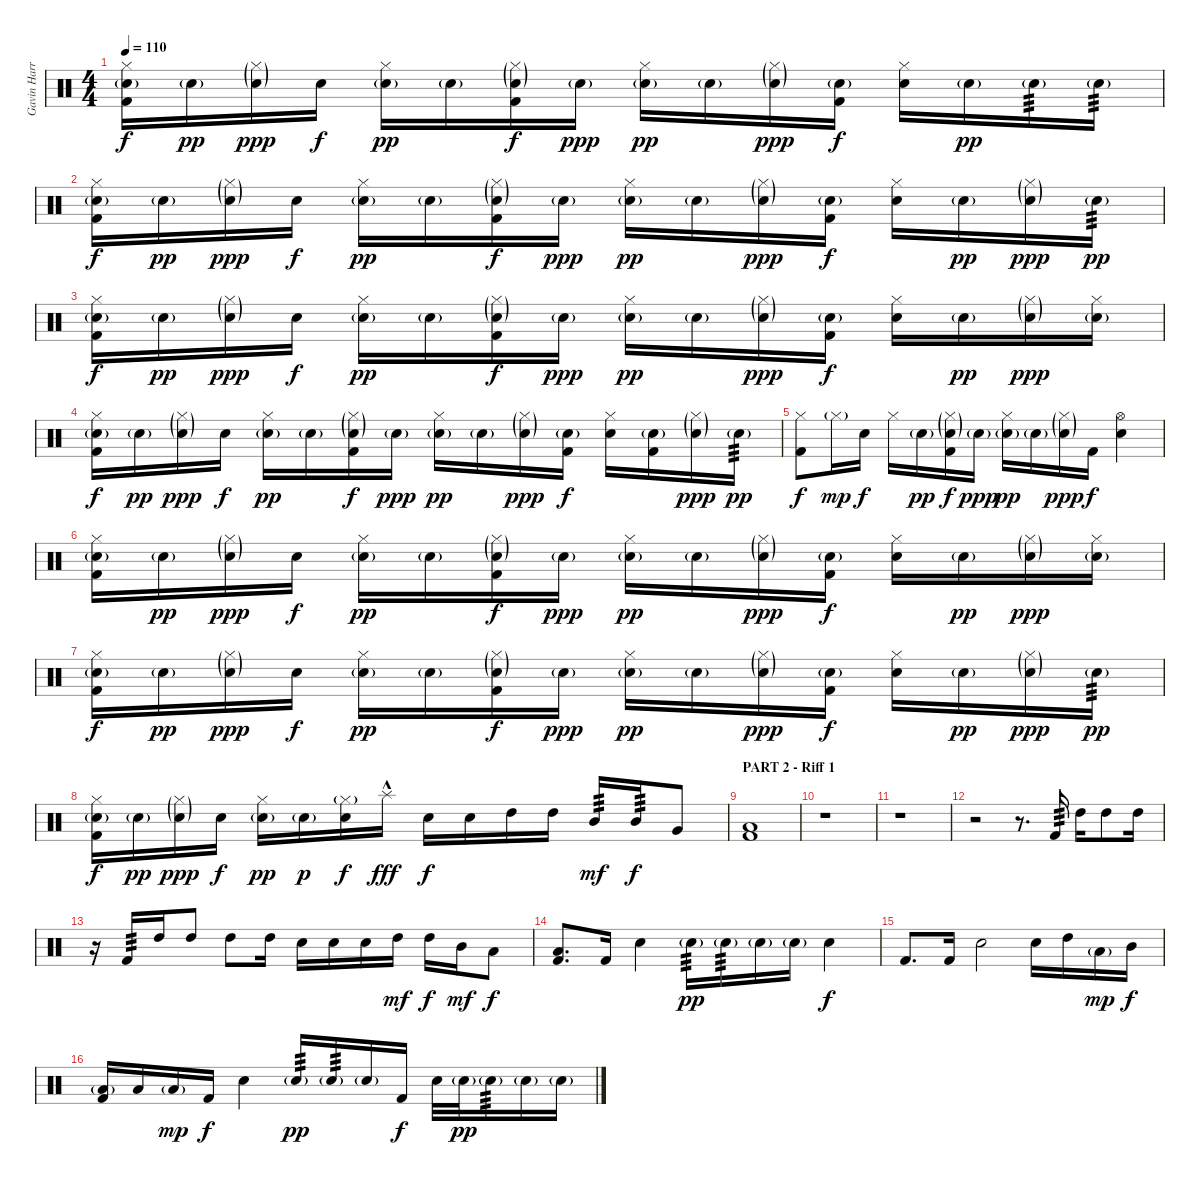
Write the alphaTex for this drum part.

\track ("Gavin Harrison - Drums" "Gavin Harr") {instrument percussion}
\staff {score}
\articulation defaults
\ts (4 4)
\tempo 110
\clef neutral
\ks c
("Hi-Hat (closed)" "Electric Snare (hit)"{g} "Kick (hit) 2").16{dy f} "Electric Snare (hit)"{g}.16{dy pp} ("Hi-Hat (closed)"{g} "Electric Snare (hit)"{g}).16{dy ppp} "Electric Snare (hit)".16{dy f} ("Hi-Hat (closed)" "Electric Snare (hit)"{g}).16{dy pp} "Electric Snare (hit)"{g}.16 ("Hi-Hat (closed)"{g} "Electric Snare (hit)"{g} "Kick (hit) 2").16{dy f} "Electric Snare (hit)"{g}.16{dy ppp} ("Hi-Hat (closed)" "Electric Snare (hit)"{g}).16{dy pp} "Electric Snare (hit)"{g}.16 ("Hi-Hat (closed)"{g} "Electric Snare (hit)"{g}).16{dy ppp} ("Electric Snare (hit)"{g} "Kick (hit) 2").16{dy f} ("Hi-Hat (closed)" "Electric Snare (hit)").16 "Electric Snare (hit)"{g}.16{dy pp} "Electric Snare (hit)"{g}.16{tp 3} "Electric Snare (hit)"{g}.16{tp 3} |
("Hi-Hat (closed)" "Electric Snare (hit)"{g} "Kick (hit) 2").16{dy f} "Electric Snare (hit)"{g}.16{dy pp} ("Hi-Hat (closed)"{g} "Electric Snare (hit)"{g}).16{dy ppp} "Electric Snare (hit)".16{dy f} ("Hi-Hat (closed)" "Electric Snare (hit)"{g}).16{dy pp} "Electric Snare (hit)"{g}.16 ("Hi-Hat (closed)"{g} "Electric Snare (hit)"{g} "Kick (hit) 2").16{dy f} "Electric Snare (hit)"{g}.16{dy ppp} ("Hi-Hat (closed)" "Electric Snare (hit)"{g}).16{dy pp} "Electric Snare (hit)"{g}.16 ("Hi-Hat (closed)"{g} "Electric Snare (hit)"{g}).16{dy ppp} ("Electric Snare (hit)"{g} "Kick (hit) 2").16{dy f} ("Hi-Hat (closed)" "Electric Snare (hit)").16 "Electric Snare (hit)"{g}.16{dy pp} ("Hi-Hat (closed)"{g} "Electric Snare (hit)"{g}).16{dy ppp} "Electric Snare (hit)"{g}.16{tp 3 dy pp} |
("Hi-Hat (closed)" "Electric Snare (hit)"{g} "Kick (hit) 2").16{dy f} "Electric Snare (hit)"{g}.16{dy pp} ("Hi-Hat (closed)"{g} "Electric Snare (hit)"{g}).16{dy ppp} "Electric Snare (hit)".16{dy f} ("Hi-Hat (closed)" "Electric Snare (hit)"{g}).16{dy pp} "Electric Snare (hit)"{g}.16 ("Hi-Hat (closed)"{g} "Electric Snare (hit)"{g} "Kick (hit) 2").16{dy f} "Electric Snare (hit)"{g}.16{dy ppp} ("Hi-Hat (closed)" "Electric Snare (hit)"{g}).16{dy pp} "Electric Snare (hit)"{g}.16 ("Hi-Hat (closed)"{g} "Electric Snare (hit)"{g}).16{dy ppp} ("Electric Snare (hit)"{g} "Kick (hit) 2").16{dy f} ("Hi-Hat (closed)" "Electric Snare (hit)").16 "Electric Snare (hit)"{g}.16{dy pp} ("Hi-Hat (closed)"{g} "Electric Snare (hit)"{g}).16{dy ppp} ("Hi-Hat (closed)" "Electric Snare (hit)"{g}).16 |
("Hi-Hat (closed)" "Electric Snare (hit)"{g} "Kick (hit) 2").16{dy f} "Electric Snare (hit)"{g}.16{dy pp} ("Hi-Hat (closed)"{g} "Electric Snare (hit)"{g}).16{dy ppp} "Electric Snare (hit)".16{dy f} ("Hi-Hat (closed)" "Electric Snare (hit)"{g}).16{dy pp} "Electric Snare (hit)"{g}.16 ("Hi-Hat (closed)"{g} "Electric Snare (hit)"{g} "Kick (hit) 2").16{dy f} "Electric Snare (hit)"{g}.16{dy ppp} ("Hi-Hat (closed)" "Electric Snare (hit)"{g}).16{dy pp} "Electric Snare (hit)"{g}.16 ("Hi-Hat (closed)"{g} "Electric Snare (hit)"{g}).16{dy ppp} ("Electric Snare (hit)"{g} "Kick (hit) 2").16{dy f} ("Hi-Hat (closed)" "Electric Snare (hit)").16 ("Electric Snare (hit)"{g} "Kick (hit) 2").16 ("Hi-Hat (closed)"{g} "Electric Snare (hit)"{g}).16{dy ppp} "Electric Snare (hit)"{g}.16{tp 3 dy pp} |
("Hi-Hat (closed)" "Kick (hit) 2").8{dy f} "Hi-Hat (closed)"{g}.16{dy mp} "Electric Snare (hit)".16{dy f} "Hi-Hat (closed)".16 "Electric Snare (hit)"{g}.16{dy pp} ("Hi-Hat (closed)"{g} "Electric Snare (hit)"{g} "Kick (hit) 2").16{dy f} "Electric Snare (hit)"{g}.16{dy ppp} ("Hi-Hat (closed)" "Electric Snare (hit)"{g}).16{dy pp} "Electric Snare (hit)"{g}.16 ("Hi-Hat (closed)"{g} "Electric Snare (hit)"{g}).16{dy ppp} "Kick (hit) 2".16{dy f} ("Hi-Hat (open)" "Electric Snare (hit)").4 |
("Hi-Hat (closed)" "Electric Snare (hit)"{g} "Kick (hit) 2").16 "Electric Snare (hit)"{g}.16{dy pp} ("Hi-Hat (closed)"{g} "Electric Snare (hit)"{g}).16{dy ppp} "Electric Snare (hit)".16{dy f} ("Hi-Hat (closed)" "Electric Snare (hit)"{g}).16{dy pp} "Electric Snare (hit)"{g}.16 ("Hi-Hat (closed)"{g} "Electric Snare (hit)"{g} "Kick (hit) 2").16{dy f} "Electric Snare (hit)"{g}.16{dy ppp} ("Hi-Hat (closed)" "Electric Snare (hit)"{g}).16{dy pp} "Electric Snare (hit)"{g}.16 ("Hi-Hat (closed)"{g} "Electric Snare (hit)"{g}).16{dy ppp} ("Electric Snare (hit)"{g} "Kick (hit) 2").16{dy f} ("Hi-Hat (closed)" "Electric Snare (hit)").16 "Electric Snare (hit)"{g}.16{dy pp} ("Hi-Hat (closed)"{g} "Electric Snare (hit)"{g}).16{dy ppp} ("Hi-Hat (closed)" "Electric Snare (hit)"{g}).16 |
("Hi-Hat (closed)" "Electric Snare (hit)"{g} "Kick (hit) 2").16{dy f} "Electric Snare (hit)"{g}.16{dy pp} ("Hi-Hat (closed)"{g} "Electric Snare (hit)"{g}).16{dy ppp} "Electric Snare (hit)".16{dy f} ("Hi-Hat (closed)" "Electric Snare (hit)"{g}).16{dy pp} "Electric Snare (hit)"{g}.16 ("Hi-Hat (closed)"{g} "Electric Snare (hit)"{g} "Kick (hit) 2").16{dy f} "Electric Snare (hit)"{g}.16{dy ppp} ("Hi-Hat (closed)" "Electric Snare (hit)"{g}).16{dy pp} "Electric Snare (hit)"{g}.16 ("Hi-Hat (closed)"{g} "Electric Snare (hit)"{g}).16{dy ppp} ("Electric Snare (hit)"{g} "Kick (hit) 2").16{dy f} ("Hi-Hat (closed)" "Electric Snare (hit)").16 "Electric Snare (hit)"{g}.16{dy pp} ("Hi-Hat (closed)"{g} "Electric Snare (hit)"{g}).16{dy ppp} "Electric Snare (hit)"{g}.16{tp 3 dy pp} |
("Hi-Hat (closed)" "Electric Snare (hit)"{g} "Kick (hit) 2").16{dy f} "Electric Snare (hit)"{g}.16{dy pp} ("Hi-Hat (closed)"{g} "Electric Snare (hit)"{g}).16{dy ppp} "Electric Snare (hit)".16{dy f} ("Hi-Hat (closed)" "Electric Snare (hit)"{g}).16{dy pp} "Electric Snare (hit)"{g}.16{dy p} ("Hi-Hat (closed)"{g} "Electric Snare (hit)").16{dy f} "Splash (hit)"{hac}.16{dy fff} "Electric Snare (hit)".16{dy f} "Electric Snare (hit)".16 "High Tom (hit)".16 "High Tom (hit)".16 "Mid Tom (hit)".16{tp 3 dy mf} "Mid Tom (hit)".16{tp 3 dy f} "Very Low Tom (hit)".8 |
\section ("" "PART 2 - Riff 1")
("Low Floor Tom (hit)" "Kick (hit) 2").1 |
r.1 |
r.1 |
r.2 r.8{d} "Kick (hit) 2".16{tp 3} "High Tom (hit)".16 "High Tom (hit)".8 "High Tom (hit)".16 |
r.16 "Kick (hit) 2".16{tp 3} "High Tom (hit)".16 "High Tom (hit)".8 "High Tom (hit)".8 "High Tom (hit)".16 "Electric Snare (hit)".16 "Electric Snare (hit)".16 "Electric Snare (hit)".16 "High Tom (hit)".16{dy mf} "High Tom (hit)".16{dy f} "Mid Tom (hit)".16{dy mf} "Low Tom (hit)".8{dy f} |
("Low Floor Tom (hit)" "Kick (hit) 2").8{d} "Kick (hit) 2".16 "Electric Snare (hit)".4 "Electric Snare (hit)"{g}.16{tp 3 dy pp} "Electric Snare (hit)"{g}.16{tp 3} "Electric Snare (hit)"{g}.16 "Electric Snare (hit)"{g}.16 "Electric Snare (hit)".4{dy f} |
"Kick (hit) 2".8{d} "Kick (hit) 2".16 "Electric Snare (hit)".2 "Electric Snare (hit)".16 "High Tom (hit)".16 "Low Floor Tom (hit)"{g}.16{dy mp} "Mid Tom (hit)".16{dy f} |
("Low Floor Tom (hit)"{g} "Kick (hit) 2").16 "Low Tom (hit)".16 "Low Floor Tom (hit)"{g}.16{dy mp} "Kick (hit) 2".16{dy f} "Electric Snare (hit)".4 "Electric Snare (hit)"{g}.16{tp 3 dy pp} "Electric Snare (hit)"{g}.16{tp 3} "Electric Snare (hit)"{g}.16 "Kick (hit) 2".16{dy f} "Electric Snare (hit)".32 "Electric Snare (hit)"{g}.32{dy pp} "Electric Snare (hit)"{g}.16{tp 3} "Electric Snare (hit)"{g}.16 "Electric Snare (hit)"{g}.16
